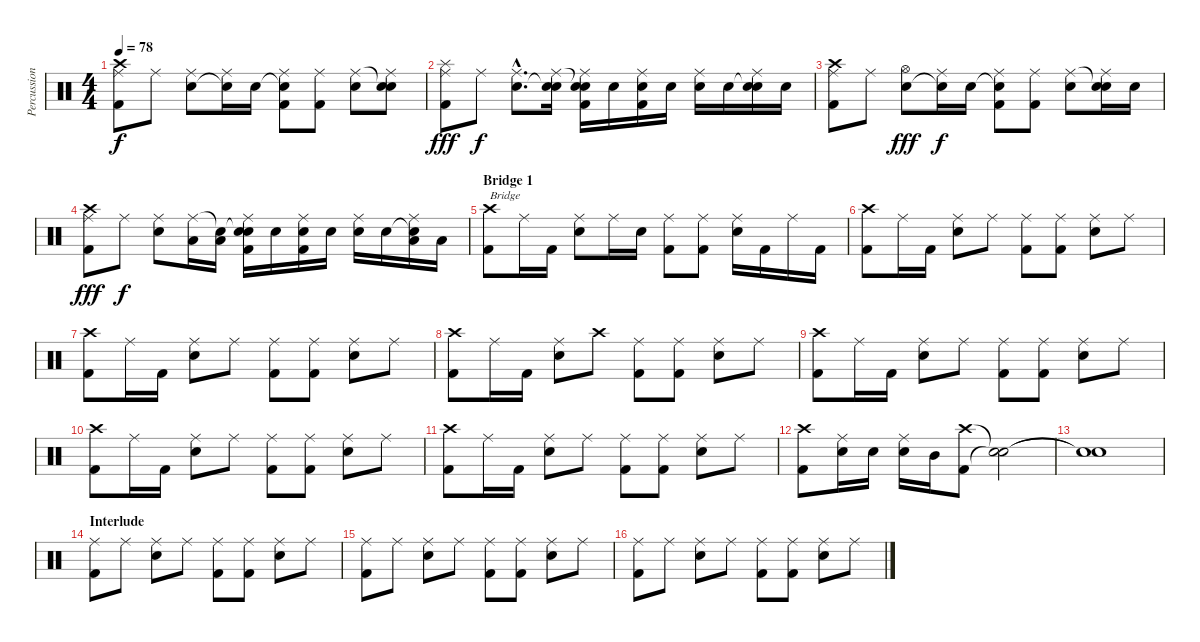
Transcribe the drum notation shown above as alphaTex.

\track ("Percussion" "Percussion") {instrument percussion}
\staff {score}
\articulation defaults
\ts (4 4)
\tempo 78
\clef neutral
\ks c
("Crash high (hit)" "Ride (middle)" "Kick (hit) 2").8{dy f} "Ride (middle)".8 ("Ride (middle)" "Electric Snare (hit)").8 ("Ride (middle)" "Snare (hit)"{t}).16 "Snare (hit) 2".16 ("Snare (hit)"{t} "Ride (middle)" "Kick (hit) 2").8 ("Ride (middle)" "Kick (hit) 2").8 ("Ride (middle)" "Electric Snare (hit)").8 ("Snare (hit)"{t} "Ride (middle)" "Electric Snare (hit)").8 |
("Splash (hit)" "Ride (middle)" "Kick (hit) 2").8{dy fff} "Ride (middle)".8{dy f} ("Ride (middle)"{hac} "Electric Snare (hit)"{hac}).8{d} ("Ride (middle)" "Snare (hit)"{t} "Snare (hit) 2").16 ("Snare (hit)"{t} "Ride (middle)" "Electric Snare (hit)" "Kick (hit) 2").16 "Electric Snare (hit)".16 ("Ride (middle)" "Snare (hit) 2" "Kick (hit) 2").16 "Snare (hit) 2".16 ("Ride (middle)" "Electric Snare (hit)").16 "Electric Snare (hit)".16 ("Snare (hit)"{t} "Ride (middle)" "Electric Snare (hit)").16 "Electric Snare (hit)".16 |
("Crash high (hit)" "Ride (middle)" "Kick (hit) 2").8 "Ride (middle)".8 ("Hi-Hat (open)" "Electric Snare (hit)").8{dy fff} ("Ride (middle)" "Snare (hit)"{t}).16{dy f} "Snare (hit) 2".16 ("Snare (hit)"{t} "Ride (middle)" "Kick (hit) 2").8 ("Ride (middle)" "Kick (hit) 2").8 ("Ride (middle)" "Electric Snare (hit)").8 ("Snare (hit)"{t} "Ride (middle)" "Electric Snare (hit)").16 "Electric Snare (hit)".16 |
("Crash high (hit)" "Ride (middle)" "Kick (hit) 2").8{dy fff} "Ride (middle)".8{dy f} ("Ride (middle)" "Electric Snare (hit)").8 ("Ride (middle)" "Low Tom (hit)").16 ("Snare (hit)"{t} "Low Tom (hit)").16 ("Snare (hit)"{t} "Ride (middle)" "Electric Snare (hit)" "Kick (hit) 2").16 "Electric Snare (hit)".16 ("Ride (middle)" "Snare (hit) 2" "Kick (hit) 2").16 "Snare (hit) 2".16 ("Ride (middle)" "Electric Snare (hit)").16 "Electric Snare (hit)".16 ("Snare (hit)"{t} "Ride (middle)" "Low Tom (hit)").16 "Low Tom (hit)".16 |
\section ("" "Bridge 1")
("Crash high (hit)" "Kick (hit) 2").8{txt "Bridge"} "Ride (middle)".16 "Kick (hit) 2".16 ("Ride (middle)" "Electric Snare (hit)").8 "Ride (middle)".16 "Electric Snare (hit)".16 ("Ride (middle)" "Kick (hit) 2").8 ("Ride (middle)" "Kick (hit) 2").8 ("Ride (middle)" "Electric Snare (hit)").16 "Kick (hit) 2".16 "Ride (middle)".16 "Kick (hit) 2".16 |
("Crash high (hit)" "Kick (hit) 2").8 "Ride (middle)".16 "Kick (hit) 2".16 ("Ride (middle)" "Electric Snare (hit)").8 "Ride (middle)".8 ("Ride (middle)" "Kick (hit) 2").8 ("Ride (middle)" "Kick (hit) 2").8 ("Ride (middle)" "Electric Snare (hit)").8 "Ride (middle)".8 |
("Crash high (hit)" "Kick (hit) 2").8 "Ride (middle)".16 "Kick (hit) 2".16 ("Ride (middle)" "Electric Snare (hit)").8 "Ride (middle)".8 ("Ride (middle)" "Kick (hit) 2").8 ("Ride (middle)" "Kick (hit) 2").8 ("Ride (middle)" "Electric Snare (hit)").8 "Ride (middle)".8 |
("Crash high (hit)" "Kick (hit) 2").8 "Ride (middle)".16 "Kick (hit) 2".16 ("Ride (middle)" "Electric Snare (hit)").8 "Crash high (hit)".8 ("Ride (middle)" "Kick (hit) 2").8 ("Ride (middle)" "Kick (hit) 2").8 ("Ride (middle)" "Electric Snare (hit)").8 "Ride (middle)".8 |
("Crash high (hit)" "Kick (hit) 2").8 "Ride (middle)".16 "Kick (hit) 2".16 ("Ride (middle)" "Electric Snare (hit)").8 "Ride (middle)".8 ("Ride (middle)" "Kick (hit) 2").8 ("Ride (middle)" "Kick (hit) 2").8 ("Ride (middle)" "Electric Snare (hit)").8 "Ride (middle)".8 |
("Crash high (hit)" "Kick (hit) 2").8 "Ride (middle)".16 "Kick (hit) 2".16 ("Ride (middle)" "Electric Snare (hit)").8 "Ride (middle)".8 ("Ride (middle)" "Kick (hit) 2").8 ("Ride (middle)" "Kick (hit) 2").8 ("Ride (middle)" "Electric Snare (hit)").8 "Ride (middle)".8 |
("Crash high (hit)" "Kick (hit) 2").8 "Ride (middle)".16 "Kick (hit) 2".16 ("Ride (middle)" "Electric Snare (hit)").8 "Ride (middle)".8 ("Ride (middle)" "Kick (hit) 2").8 ("Ride (middle)" "Kick (hit) 2").8 ("Ride (middle)" "Electric Snare (hit)").8 "Ride (middle)".8 |
("Crash high (hit)" "Kick (hit) 2").8 ("Ride (middle)" "Electric Snare (hit)").16 "Electric Snare (hit)".16 ("Ride (middle)" "Electric Snare (hit)").16 "Mid Tom (hit)".16 ("Crash high (hit)" "Kick (hit) 2").8 ("Snare (hit)"{t} "Snare (hit)"{t}).2 |
("Snare (hit)"{t} "Snare (hit)"{t}).1 |
\section ("" "Interlude")
("Ride (middle)" "Kick (hit) 2").8{volume 9} "Ride (middle)".8 ("Ride (middle)" "Electric Snare (hit)").8 "Ride (middle)".8 ("Ride (middle)" "Kick (hit) 2").8 ("Ride (middle)" "Kick (hit) 2").8 ("Ride (middle)" "Electric Snare (hit)").8 "Ride (middle)".8 |
("Ride (middle)" "Kick (hit) 2").8{volume 9} "Ride (middle)".8 ("Ride (middle)" "Electric Snare (hit)").8 "Ride (middle)".8 ("Ride (middle)" "Kick (hit) 2").8 ("Ride (middle)" "Kick (hit) 2").8 ("Ride (middle)" "Electric Snare (hit)").8 "Ride (middle)".8 |
("Ride (middle)" "Kick (hit) 2").8{volume 9} "Ride (middle)".8 ("Ride (middle)" "Electric Snare (hit)").8 "Ride (middle)".8 ("Ride (middle)" "Kick (hit) 2").8 ("Ride (middle)" "Kick (hit) 2").8 ("Ride (middle)" "Electric Snare (hit)").8 "Ride (middle)".8
